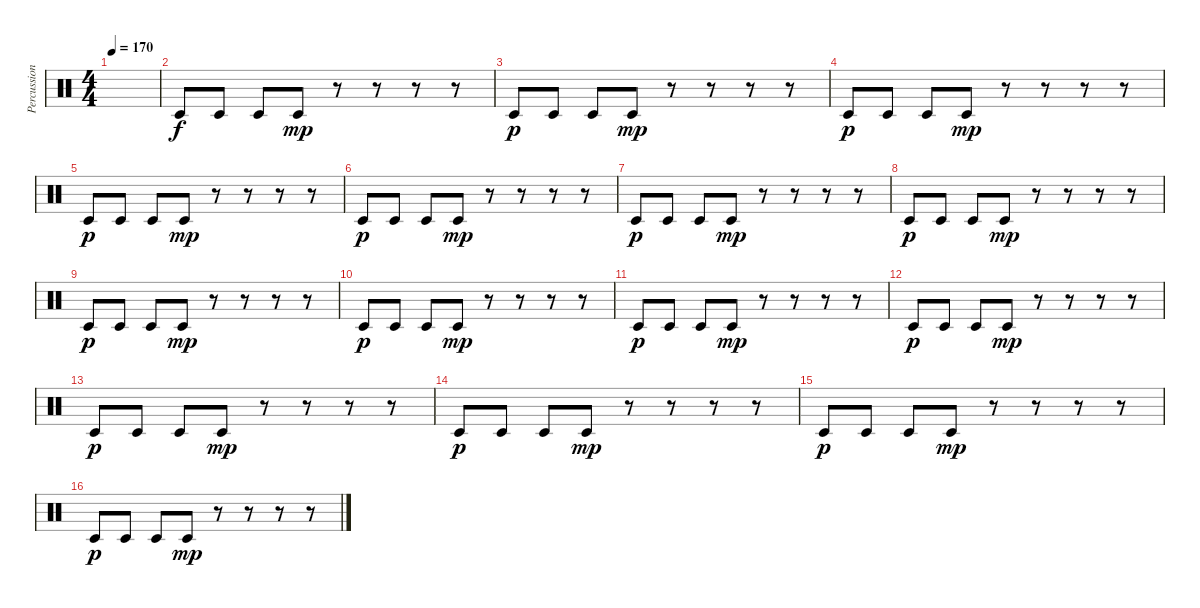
\track ("Percussions" "Percussion") {instrument percussion}
\staff {score}
\articulation defaults
\ts (4 4)
\tempo 170
\clef neutral
\ks c
|
"Timbale low (hit)".8 "Timbale low (hit)".8 "Timbale low (hit)".8 "Timbale low (hit)".8{dy mp} r.8 r.8 r.8 r.8 |
"Timbale low (hit)".8{dy p} "Timbale low (hit)".8 "Timbale low (hit)".8 "Timbale low (hit)".8{dy mp} r.8 r.8 r.8 r.8 |
"Timbale low (hit)".8{dy p} "Timbale low (hit)".8 "Timbale low (hit)".8 "Timbale low (hit)".8{dy mp} r.8 r.8 r.8 r.8 |
"Timbale low (hit)".8{dy p} "Timbale low (hit)".8 "Timbale low (hit)".8 "Timbale low (hit)".8{dy mp} r.8 r.8 r.8 r.8 |
"Timbale low (hit)".8{dy p} "Timbale low (hit)".8 "Timbale low (hit)".8 "Timbale low (hit)".8{dy mp} r.8 r.8 r.8 r.8 |
"Timbale low (hit)".8{dy p} "Timbale low (hit)".8 "Timbale low (hit)".8 "Timbale low (hit)".8{dy mp} r.8 r.8 r.8 r.8 |
"Timbale low (hit)".8{dy p} "Timbale low (hit)".8 "Timbale low (hit)".8 "Timbale low (hit)".8{dy mp} r.8 r.8 r.8 r.8 |
"Timbale low (hit)".8{dy p} "Timbale low (hit)".8 "Timbale low (hit)".8 "Timbale low (hit)".8{dy mp} r.8 r.8 r.8 r.8 |
"Timbale low (hit)".8{dy p} "Timbale low (hit)".8 "Timbale low (hit)".8 "Timbale low (hit)".8{dy mp} r.8 r.8 r.8 r.8 |
"Timbale low (hit)".8{dy p} "Timbale low (hit)".8 "Timbale low (hit)".8 "Timbale low (hit)".8{dy mp} r.8 r.8 r.8 r.8 |
"Timbale low (hit)".8{dy p} "Timbale low (hit)".8 "Timbale low (hit)".8 "Timbale low (hit)".8{dy mp} r.8 r.8 r.8 r.8 |
"Timbale low (hit)".8{dy p} "Timbale low (hit)".8 "Timbale low (hit)".8 "Timbale low (hit)".8{dy mp} r.8 r.8 r.8 r.8 |
"Timbale low (hit)".8{dy p} "Timbale low (hit)".8 "Timbale low (hit)".8 "Timbale low (hit)".8{dy mp} r.8 r.8 r.8 r.8 |
"Timbale low (hit)".8{dy p} "Timbale low (hit)".8 "Timbale low (hit)".8 "Timbale low (hit)".8{dy mp} r.8 r.8 r.8 r.8 |
"Timbale low (hit)".8{dy p} "Timbale low (hit)".8 "Timbale low (hit)".8 "Timbale low (hit)".8{dy mp} r.8 r.8 r.8 r.8
